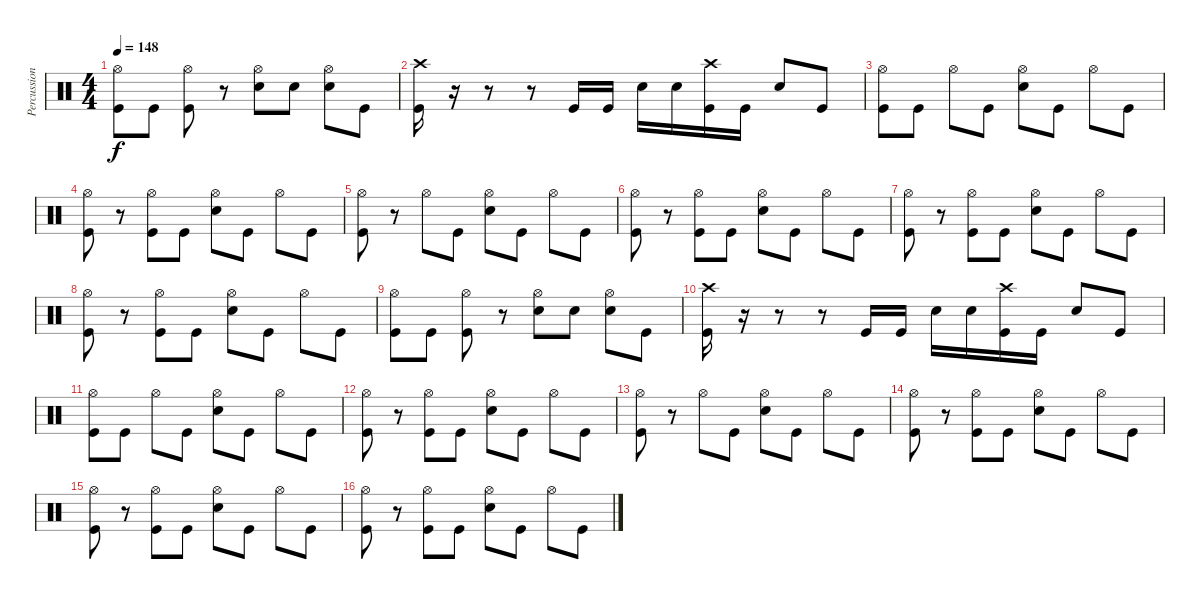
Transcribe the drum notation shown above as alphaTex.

\track ("Percussion" "Percussion") {instrument percussion}
\staff {score}
\articulation defaults
\ts (4 4)
\tempo 148
\clef neutral
\ks c
("Hi-Hat (open)" "Kick (hit)").8{dy f} "Kick (hit)".8 ("Hi-Hat (open)" "Kick (hit)").8 r.8 ("Hi-Hat (open)" "Electric Snare (hit)").8 "Electric Snare (hit)".8 ("Hi-Hat (open)" "Electric Snare (hit)").8 "Kick (hit)".8 |
("Crash high (hit)" "Kick (hit)").16 r.16 r.8 r.8 "Kick (hit)".16 "Kick (hit)".16 "Electric Snare (hit)".16 "Electric Snare (hit)".16 ("Crash high (hit)" "Kick (hit)").16 "Kick (hit)".16 "Electric Snare (hit)".8 "Kick (hit)".8 |
("Hi-Hat (open)" "Kick (hit)").8 "Kick (hit)".8 "Hi-Hat (open)".8 "Kick (hit)".8 ("Hi-Hat (open)" "Electric Snare (hit)").8 "Kick (hit)".8 "Hi-Hat (open)".8 "Kick (hit)".8 |
("Hi-Hat (open)" "Kick (hit)").8 r.8 ("Hi-Hat (open)" "Kick (hit)").8 "Kick (hit)".8 ("Hi-Hat (open)" "Electric Snare (hit)").8 "Kick (hit)".8 "Hi-Hat (open)".8 "Kick (hit)".8 |
("Hi-Hat (open)" "Kick (hit)").8 r.8 "Hi-Hat (open)".8 "Kick (hit)".8 ("Hi-Hat (open)" "Electric Snare (hit)").8 "Kick (hit)".8 "Hi-Hat (open)".8 "Kick (hit)".8 |
("Hi-Hat (open)" "Kick (hit)").8 r.8 ("Hi-Hat (open)" "Kick (hit)").8 "Kick (hit)".8 ("Hi-Hat (open)" "Electric Snare (hit)").8 "Kick (hit)".8 "Hi-Hat (open)".8 "Kick (hit)".8 |
("Hi-Hat (open)" "Kick (hit)").8 r.8 ("Hi-Hat (open)" "Kick (hit)").8 "Kick (hit)".8 ("Hi-Hat (open)" "Electric Snare (hit)").8 "Kick (hit)".8 "Hi-Hat (open)".8 "Kick (hit)".8 |
("Hi-Hat (open)" "Kick (hit)").8 r.8 ("Hi-Hat (open)" "Kick (hit)").8 "Kick (hit)".8 ("Hi-Hat (open)" "Electric Snare (hit)").8 "Kick (hit)".8 "Hi-Hat (open)".8 "Kick (hit)".8 |
("Hi-Hat (open)" "Kick (hit)").8 "Kick (hit)".8 ("Hi-Hat (open)" "Kick (hit)").8 r.8 ("Hi-Hat (open)" "Electric Snare (hit)").8 "Electric Snare (hit)".8 ("Hi-Hat (open)" "Electric Snare (hit)").8 "Kick (hit)".8 |
("Crash high (hit)" "Kick (hit)").16 r.16 r.8 r.8 "Kick (hit)".16 "Kick (hit)".16 "Electric Snare (hit)".16 "Electric Snare (hit)".16 ("Crash high (hit)" "Kick (hit)").16 "Kick (hit)".16 "Electric Snare (hit)".8 "Kick (hit)".8 |
("Hi-Hat (open)" "Kick (hit)").8 "Kick (hit)".8 "Hi-Hat (open)".8 "Kick (hit)".8 ("Hi-Hat (open)" "Electric Snare (hit)").8 "Kick (hit)".8 "Hi-Hat (open)".8 "Kick (hit)".8 |
("Hi-Hat (open)" "Kick (hit)").8 r.8 ("Hi-Hat (open)" "Kick (hit)").8 "Kick (hit)".8 ("Hi-Hat (open)" "Electric Snare (hit)").8 "Kick (hit)".8 "Hi-Hat (open)".8 "Kick (hit)".8 |
("Hi-Hat (open)" "Kick (hit)").8 r.8 "Hi-Hat (open)".8 "Kick (hit)".8 ("Hi-Hat (open)" "Electric Snare (hit)").8 "Kick (hit)".8 "Hi-Hat (open)".8 "Kick (hit)".8 |
("Hi-Hat (open)" "Kick (hit)").8 r.8 ("Hi-Hat (open)" "Kick (hit)").8 "Kick (hit)".8 ("Hi-Hat (open)" "Electric Snare (hit)").8 "Kick (hit)".8 "Hi-Hat (open)".8 "Kick (hit)".8 |
("Hi-Hat (open)" "Kick (hit)").8 r.8 ("Hi-Hat (open)" "Kick (hit)").8 "Kick (hit)".8 ("Hi-Hat (open)" "Electric Snare (hit)").8 "Kick (hit)".8 "Hi-Hat (open)".8 "Kick (hit)".8 |
("Hi-Hat (open)" "Kick (hit)").8 r.8 ("Hi-Hat (open)" "Kick (hit)").8 "Kick (hit)".8 ("Hi-Hat (open)" "Electric Snare (hit)").8 "Kick (hit)".8 "Hi-Hat (open)".8 "Kick (hit)".8
